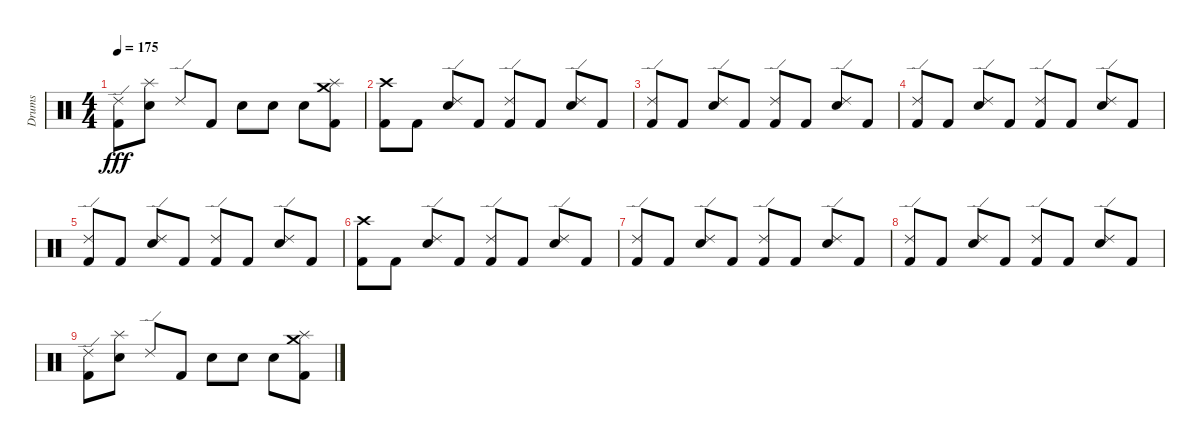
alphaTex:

\track ("Drums" "Drums") {instrument percussion}
\staff {score}
\articulation defaults
\ts (4 4)
\tempo 175
\clef neutral
\ks c
("Kick (hit) 2" "Ride (edge) 2").8{dy fff} ("Electric Snare (hit)" "Splash (hit)").8 "Ride (edge) 2".8 "Kick (hit) 2".8 "Electric Snare (hit)".8 "Electric Snare (hit)".8 "Electric Snare (hit)".8 ("Kick (hit) 2" "Splash (hit)" "Crash medium (hit)").8 |
("Kick (hit) 2" "Crash high (hit)").8 "Kick (hit) 2".8 ("Electric Snare (hit)" "Ride (edge) 2").8 "Kick (hit) 2".8 ("Kick (hit) 2" "Ride (edge) 2").8 "Kick (hit) 2".8 ("Electric Snare (hit)" "Ride (edge) 2").8 "Kick (hit) 2".8 |
("Kick (hit) 2" "Ride (edge) 2").8 "Kick (hit) 2".8 ("Electric Snare (hit)" "Ride (edge) 2").8 "Kick (hit) 2".8 ("Kick (hit) 2" "Ride (edge) 2").8 "Kick (hit) 2".8 ("Electric Snare (hit)" "Ride (edge) 2").8 "Kick (hit) 2".8 |
("Kick (hit) 2" "Ride (edge) 2").8 "Kick (hit) 2".8 ("Electric Snare (hit)" "Ride (edge) 2").8 "Kick (hit) 2".8 ("Kick (hit) 2" "Ride (edge) 2").8 "Kick (hit) 2".8 ("Electric Snare (hit)" "Ride (edge) 2").8 "Kick (hit) 2".8 |
("Kick (hit) 2" "Ride (edge) 2").8 "Kick (hit) 2".8 ("Electric Snare (hit)" "Ride (edge) 2").8 "Kick (hit) 2".8 ("Kick (hit) 2" "Ride (edge) 2").8 "Kick (hit) 2".8 ("Electric Snare (hit)" "Ride (edge) 2").8 "Kick (hit) 2".8 |
("Kick (hit) 2" "Crash high (hit)").8 "Kick (hit) 2".8 ("Electric Snare (hit)" "Ride (edge) 2").8 "Kick (hit) 2".8 ("Kick (hit) 2" "Ride (edge) 2").8 "Kick (hit) 2".8 ("Electric Snare (hit)" "Ride (edge) 2").8 "Kick (hit) 2".8 |
("Kick (hit) 2" "Ride (edge) 2").8 "Kick (hit) 2".8 ("Electric Snare (hit)" "Ride (edge) 2").8 "Kick (hit) 2".8 ("Kick (hit) 2" "Ride (edge) 2").8 "Kick (hit) 2".8 ("Electric Snare (hit)" "Ride (edge) 2").8 "Kick (hit) 2".8 |
("Kick (hit) 2" "Ride (edge) 2").8 "Kick (hit) 2".8 ("Electric Snare (hit)" "Ride (edge) 2").8 "Kick (hit) 2".8 ("Kick (hit) 2" "Ride (edge) 2").8 "Kick (hit) 2".8 ("Electric Snare (hit)" "Ride (edge) 2").8 "Kick (hit) 2".8 |
("Kick (hit) 2" "Ride (edge) 2").8 ("Electric Snare (hit)" "Splash (hit)").8 "Ride (edge) 2".8 "Kick (hit) 2".8 "Electric Snare (hit)".8 "Electric Snare (hit)".8 "Electric Snare (hit)".8 ("Kick (hit) 2" "Splash (hit)" "Crash medium (hit)").8
